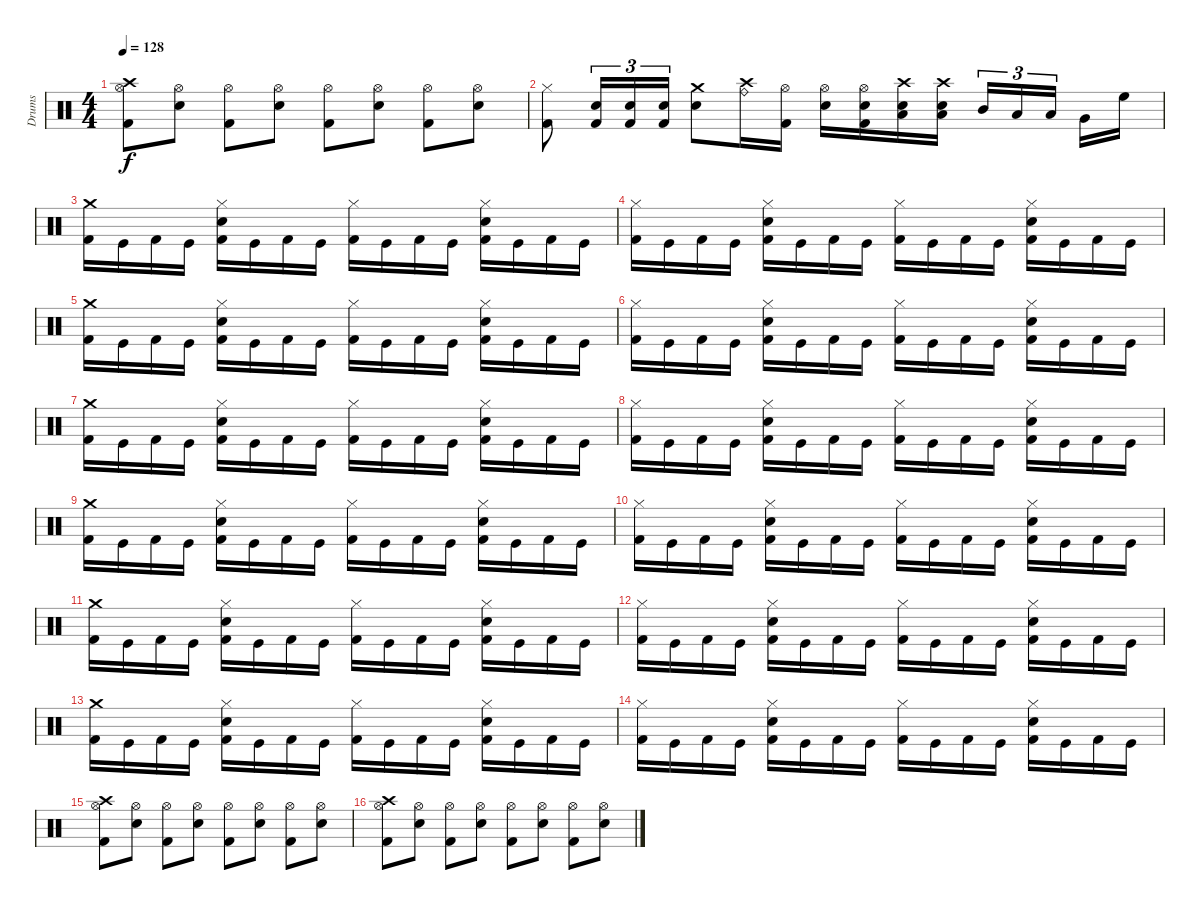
\track ("Drums" "Drums") {instrument percussion}
\staff {score}
\articulation defaults
\ts (4 4)
\tempo 128
\clef neutral
\ks c
("Crash high (hit)" "Hi-Hat (open)" "Kick (hit) 2").8{dy f} ("Hi-Hat (open)" "Snare (hit) 2").8 ("Hi-Hat (open)" "Kick (hit) 2").8 ("Hi-Hat (open)" "Snare (hit) 2").8 ("Hi-Hat (open)" "Kick (hit) 2").8 ("Hi-Hat (open)" "Snare (hit) 2").8 ("Hi-Hat (open)" "Kick (hit) 2").8 ("Hi-Hat (open)" "Snare (hit) 2").8 |
("Hi-Hat (closed)" "Kick (hit) 2").8 ("Kick (hit) 2" "Snare (hit) 2").16{tu (3 2)} ("Kick (hit) 2" "Snare (hit) 2").16{tu (3 2)} ("Kick (hit) 2" "Snare (hit) 2").16{tu (3 2)} ("Crash medium (hit)" "Snare (hit) 2").8 ("Crash high (hit)" "Ride (bell)").16 ("Hi-Hat (open)" "Kick (hit) 2").16 ("Hi-Hat (open)" "Electric Snare (hit)").16 ("Hi-Hat (open)" "Kick (hit) 2" "Electric Snare (hit)").16 ("Crash high (hit)" "Snare (hit) 2" "Low Tom (hit)").16 ("Crash high (hit)" "Snare (hit) 2" "Low Tom (hit)").16 "Mid Tom (hit)".16{tu (3 2)} "Low Tom (hit)".16{tu (3 2)} "Low Tom (hit)".16{tu (3 2)} "Very Low Tom (hit)".16 "High Floor Tom (hit)".16 |
("Crash medium (hit)" "Kick (hit) 2").16 "Kick (hit)".16 "Kick (hit) 2".16 "Kick (hit)".16 ("Snare (hit) 2" "Hi-Hat (closed)" "Kick (hit) 2").16 "Kick (hit)".16 "Kick (hit) 2".16 "Kick (hit)".16 ("Hi-Hat (closed)" "Kick (hit) 2").16 "Kick (hit)".16 "Kick (hit) 2".16 "Kick (hit)".16 ("Snare (hit) 2" "Hi-Hat (closed)" "Kick (hit) 2").16 "Kick (hit)".16 "Kick (hit) 2".16 "Kick (hit)".16 |
("Hi-Hat (closed)" "Kick (hit) 2").16 "Kick (hit)".16 "Kick (hit) 2".16 "Kick (hit)".16 ("Snare (hit) 2" "Hi-Hat (closed)" "Kick (hit) 2").16 "Kick (hit)".16 "Kick (hit) 2".16 "Kick (hit)".16 ("Hi-Hat (closed)" "Kick (hit) 2").16 "Kick (hit)".16 "Kick (hit) 2".16 "Kick (hit)".16 ("Snare (hit) 2" "Hi-Hat (closed)" "Kick (hit) 2").16 "Kick (hit)".16 "Kick (hit) 2".16 "Kick (hit)".16 |
("Crash medium (hit)" "Kick (hit) 2").16 "Kick (hit)".16 "Kick (hit) 2".16 "Kick (hit)".16 ("Snare (hit) 2" "Hi-Hat (closed)" "Kick (hit) 2").16 "Kick (hit)".16 "Kick (hit) 2".16 "Kick (hit)".16 ("Hi-Hat (closed)" "Kick (hit) 2").16 "Kick (hit)".16 "Kick (hit) 2".16 "Kick (hit)".16 ("Snare (hit) 2" "Hi-Hat (closed)" "Kick (hit) 2").16 "Kick (hit)".16 "Kick (hit) 2".16 "Kick (hit)".16 |
("Hi-Hat (closed)" "Kick (hit) 2").16 "Kick (hit)".16 "Kick (hit) 2".16 "Kick (hit)".16 ("Snare (hit) 2" "Hi-Hat (closed)" "Kick (hit) 2").16 "Kick (hit)".16 "Kick (hit) 2".16 "Kick (hit)".16 ("Hi-Hat (closed)" "Kick (hit) 2").16 "Kick (hit)".16 "Kick (hit) 2".16 "Kick (hit)".16 ("Snare (hit) 2" "Hi-Hat (closed)" "Kick (hit) 2").16 "Kick (hit)".16 "Kick (hit) 2".16 "Kick (hit)".16 |
("Crash medium (hit)" "Kick (hit) 2").16 "Kick (hit)".16 "Kick (hit) 2".16 "Kick (hit)".16 ("Snare (hit) 2" "Hi-Hat (closed)" "Kick (hit) 2").16 "Kick (hit)".16 "Kick (hit) 2".16 "Kick (hit)".16 ("Hi-Hat (closed)" "Kick (hit) 2").16 "Kick (hit)".16 "Kick (hit) 2".16 "Kick (hit)".16 ("Snare (hit) 2" "Hi-Hat (closed)" "Kick (hit) 2").16 "Kick (hit)".16 "Kick (hit) 2".16 "Kick (hit)".16 |
("Hi-Hat (closed)" "Kick (hit) 2").16 "Kick (hit)".16 "Kick (hit) 2".16 "Kick (hit)".16 ("Snare (hit) 2" "Hi-Hat (closed)" "Kick (hit) 2").16 "Kick (hit)".16 "Kick (hit) 2".16 "Kick (hit)".16 ("Hi-Hat (closed)" "Kick (hit) 2").16 "Kick (hit)".16 "Kick (hit) 2".16 "Kick (hit)".16 ("Snare (hit) 2" "Hi-Hat (closed)" "Kick (hit) 2").16 "Kick (hit)".16 "Kick (hit) 2".16 "Kick (hit)".16 |
("Crash medium (hit)" "Kick (hit) 2").16 "Kick (hit)".16 "Kick (hit) 2".16 "Kick (hit)".16 ("Snare (hit) 2" "Hi-Hat (closed)" "Kick (hit) 2").16 "Kick (hit)".16 "Kick (hit) 2".16 "Kick (hit)".16 ("Hi-Hat (closed)" "Kick (hit) 2").16 "Kick (hit)".16 "Kick (hit) 2".16 "Kick (hit)".16 ("Snare (hit) 2" "Hi-Hat (closed)" "Kick (hit) 2").16 "Kick (hit)".16 "Kick (hit) 2".16 "Kick (hit)".16 |
("Hi-Hat (closed)" "Kick (hit) 2").16 "Kick (hit)".16 "Kick (hit) 2".16 "Kick (hit)".16 ("Snare (hit) 2" "Hi-Hat (closed)" "Kick (hit) 2").16 "Kick (hit)".16 "Kick (hit) 2".16 "Kick (hit)".16 ("Hi-Hat (closed)" "Kick (hit) 2").16 "Kick (hit)".16 "Kick (hit) 2".16 "Kick (hit)".16 ("Snare (hit) 2" "Hi-Hat (closed)" "Kick (hit) 2").16 "Kick (hit)".16 "Kick (hit) 2".16 "Kick (hit)".16 |
("Crash medium (hit)" "Kick (hit) 2").16 "Kick (hit)".16 "Kick (hit) 2".16 "Kick (hit)".16 ("Snare (hit) 2" "Hi-Hat (closed)" "Kick (hit) 2").16 "Kick (hit)".16 "Kick (hit) 2".16 "Kick (hit)".16 ("Hi-Hat (closed)" "Kick (hit) 2").16 "Kick (hit)".16 "Kick (hit) 2".16 "Kick (hit)".16 ("Snare (hit) 2" "Hi-Hat (closed)" "Kick (hit) 2").16 "Kick (hit)".16 "Kick (hit) 2".16 "Kick (hit)".16 |
("Hi-Hat (closed)" "Kick (hit) 2").16 "Kick (hit)".16 "Kick (hit) 2".16 "Kick (hit)".16 ("Snare (hit) 2" "Hi-Hat (closed)" "Kick (hit) 2").16 "Kick (hit)".16 "Kick (hit) 2".16 "Kick (hit)".16 ("Hi-Hat (closed)" "Kick (hit) 2").16 "Kick (hit)".16 "Kick (hit) 2".16 "Kick (hit)".16 ("Snare (hit) 2" "Hi-Hat (closed)" "Kick (hit) 2").16 "Kick (hit)".16 "Kick (hit) 2".16 "Kick (hit)".16 |
("Crash medium (hit)" "Kick (hit) 2").16 "Kick (hit)".16 "Kick (hit) 2".16 "Kick (hit)".16 ("Snare (hit) 2" "Hi-Hat (closed)" "Kick (hit) 2").16 "Kick (hit)".16 "Kick (hit) 2".16 "Kick (hit)".16 ("Hi-Hat (closed)" "Kick (hit) 2").16 "Kick (hit)".16 "Kick (hit) 2".16 "Kick (hit)".16 ("Snare (hit) 2" "Hi-Hat (closed)" "Kick (hit) 2").16 "Kick (hit)".16 "Kick (hit) 2".16 "Kick (hit)".16 |
("Hi-Hat (closed)" "Kick (hit) 2").16 "Kick (hit)".16 "Kick (hit) 2".16 "Kick (hit)".16 ("Snare (hit) 2" "Hi-Hat (closed)" "Kick (hit) 2").16 "Kick (hit)".16 "Kick (hit) 2".16 "Kick (hit)".16 ("Hi-Hat (closed)" "Kick (hit) 2").16 "Kick (hit)".16 "Kick (hit) 2".16 "Kick (hit)".16 ("Snare (hit) 2" "Hi-Hat (closed)" "Kick (hit) 2").16 "Kick (hit)".16 "Kick (hit) 2".16 "Kick (hit)".16 |
("Crash high (hit)" "Hi-Hat (open)" "Kick (hit) 2").8 ("Hi-Hat (open)" "Snare (hit) 2").8 ("Hi-Hat (open)" "Kick (hit) 2").8 ("Hi-Hat (open)" "Snare (hit) 2").8 ("Hi-Hat (open)" "Kick (hit) 2").8 ("Hi-Hat (open)" "Snare (hit) 2").8 ("Hi-Hat (open)" "Kick (hit) 2").8 ("Hi-Hat (open)" "Snare (hit) 2").8 |
("Crash high (hit)" "Hi-Hat (open)" "Kick (hit) 2").8 ("Hi-Hat (open)" "Snare (hit) 2").8 ("Hi-Hat (open)" "Kick (hit) 2").8 ("Hi-Hat (open)" "Snare (hit) 2").8 ("Hi-Hat (open)" "Kick (hit) 2").8 ("Hi-Hat (open)" "Snare (hit) 2").8 ("Hi-Hat (open)" "Kick (hit) 2").8 ("Hi-Hat (open)" "Snare (hit) 2").8
